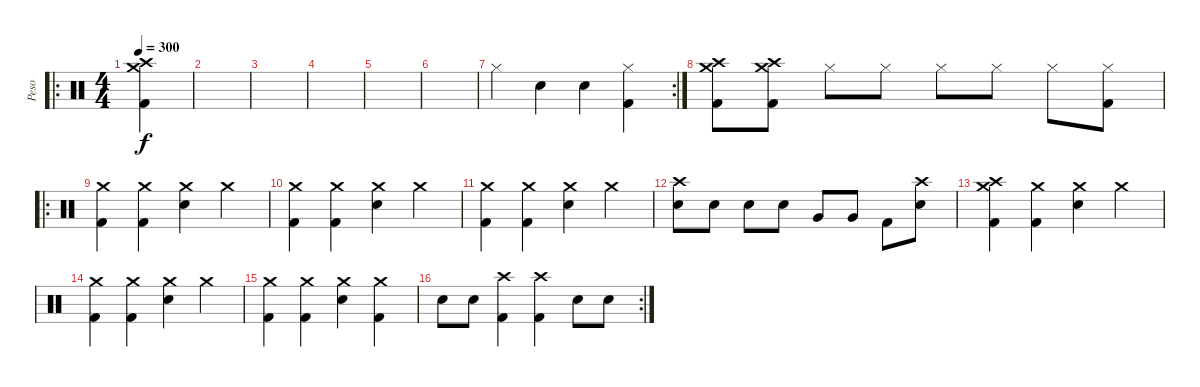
\track ("Peso" "Peso") {instrument percussion}
\staff {score}
\articulation defaults
\ro
\ts (4 4)
\tempo 300
\clef neutral
\ks c
("Crash medium (hit)" "Crash high (hit)" "Kick (hit) 2").4{dy f} |
|
|
|
|
|
\rc 2 "Hi-Hat (closed)"{x}.4 "Snare (hit)"{x}.4 "Snare (hit)"{x}.4
("Hi-Hat (closed)" "Kick (hit) 2").4 |
("Crash medium (hit)" "Crash high (hit)" "Kick (hit) 2").8 ("Crash medium (hit)" "Crash high (hit)" "Kick (hit) 2").8 "Hi-Hat (closed)".8 "Hi-Hat (closed)".8 "Hi-Hat (closed)".8 "Hi-Hat (closed)".8 "Hi-Hat (closed)".8 ("Hi-Hat (closed)" "Kick (hit) 2").8 |
\ro
("Crash medium (hit)" "Kick (hit) 2").4 ("Crash medium (hit)" "Kick (hit) 2").4 ("Crash medium (hit)" "Snare (hit) 2").4 "Crash medium (hit)".4 |
("Crash medium (hit)" "Kick (hit) 2").4 ("Crash medium (hit)" "Kick (hit) 2").4 ("Crash medium (hit)" "Snare (hit) 2").4 "Crash medium (hit)".4 |
("Crash medium (hit)" "Kick (hit) 2").4 ("Crash medium (hit)" "Kick (hit) 2").4 ("Crash medium (hit)" "Snare (hit) 2").4 "Crash medium (hit)".4 |
("Crash high (hit)" "Snare (hit) 2").8 "Snare (hit) 2".8 "Snare (hit) 2".8 "Snare (hit) 2".8 "Very Low Tom (hit)".8 "Very Low Tom (hit)".8 "Kick (hit) 2".8 ("Crash high (hit)" "Snare (hit) 2").8 |
("Crash high (hit)" "Crash medium (hit)" "Kick (hit) 2").4 ("Crash medium (hit)" "Kick (hit) 2").4 ("Crash medium (hit)" "Snare (hit) 2").4 "Crash medium (hit)".4 |
("Crash medium (hit)" "Kick (hit) 2").4 ("Crash medium (hit)" "Kick (hit) 2").4 ("Crash medium (hit)" "Snare (hit) 2").4 "Crash medium (hit)".4 |
("Crash medium (hit)" "Kick (hit) 2").4 ("Crash medium (hit)" "Kick (hit) 2").4 ("Crash medium (hit)" "Snare (hit) 2").4 ("Crash medium (hit)" "Kick (hit) 2").4 |
\rc 2 "Snare (hit) 2".8 "Snare (hit) 2".8
("Crash high (hit)" "Kick (hit) 2").4 ("Crash high (hit)" "Kick (hit) 2").4 "Snare (hit) 2".8 "Snare (hit) 2".8
